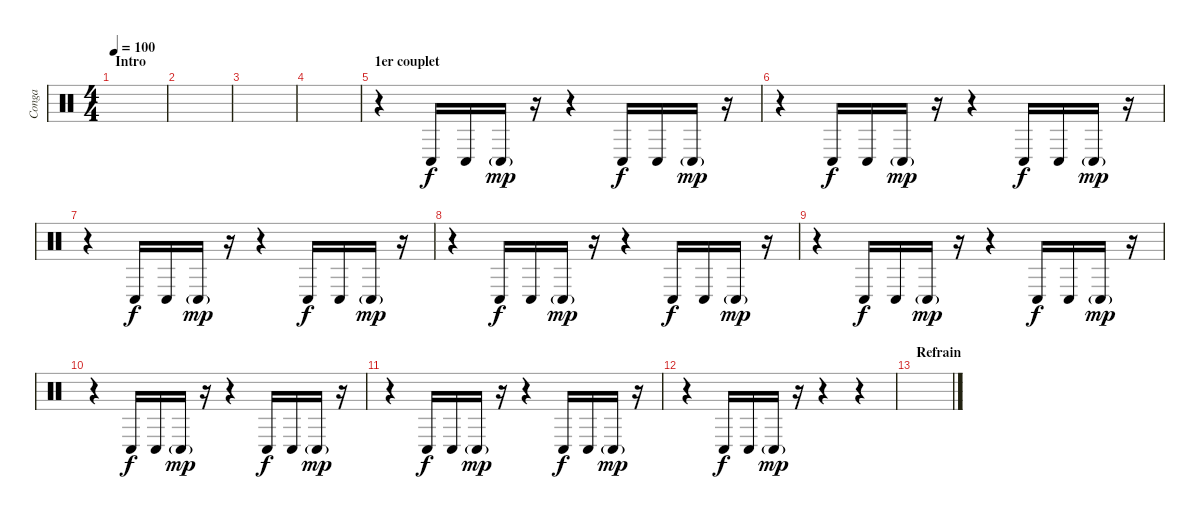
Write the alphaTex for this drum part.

\track ("Conga" "Conga") {instrument percussion}
\staff {score}
\articulation defaults
\ts (4 4)
\section ("" "Intro")
\tempo 100
\clef neutral
\ks c
|
|
|
|
\section ("" "1er couplet")
r.4 "Conga low (hit)".16 "Conga low (hit)".16 "Conga low (hit)"{g}.16{dy mp} r.16 r.4 "Conga low (hit)".16{dy f} "Conga low (hit)".16 "Conga low (hit)"{g}.16{dy mp} r.16 |
r.4 "Conga low (hit)".16{dy f} "Conga low (hit)".16 "Conga low (hit)"{g}.16{dy mp} r.16 r.4 "Conga low (hit)".16{dy f} "Conga low (hit)".16 "Conga low (hit)"{g}.16{dy mp} r.16 |
r.4 "Conga low (hit)".16{dy f} "Conga low (hit)".16 "Conga low (hit)"{g}.16{dy mp} r.16 r.4 "Conga low (hit)".16{dy f} "Conga low (hit)".16 "Conga low (hit)"{g}.16{dy mp} r.16 |
r.4 "Conga low (hit)".16{dy f} "Conga low (hit)".16 "Conga low (hit)"{g}.16{dy mp} r.16 r.4 "Conga low (hit)".16{dy f} "Conga low (hit)".16 "Conga low (hit)"{g}.16{dy mp} r.16 |
r.4 "Conga low (hit)".16{dy f} "Conga low (hit)".16 "Conga low (hit)"{g}.16{dy mp} r.16 r.4 "Conga low (hit)".16{dy f} "Conga low (hit)".16 "Conga low (hit)"{g}.16{dy mp} r.16 |
r.4 "Conga low (hit)".16{dy f} "Conga low (hit)".16 "Conga low (hit)"{g}.16{dy mp} r.16 r.4 "Conga low (hit)".16{dy f} "Conga low (hit)".16 "Conga low (hit)"{g}.16{dy mp} r.16 |
r.4 "Conga low (hit)".16{dy f} "Conga low (hit)".16 "Conga low (hit)"{g}.16{dy mp} r.16 r.4 "Conga low (hit)".16{dy f} "Conga low (hit)".16 "Conga low (hit)"{g}.16{dy mp} r.16 |
r.4 "Conga low (hit)".16{dy f} "Conga low (hit)".16 "Conga low (hit)"{g}.16{dy mp} r.16 r.4 r.4 |
\section ("" "Refrain")
